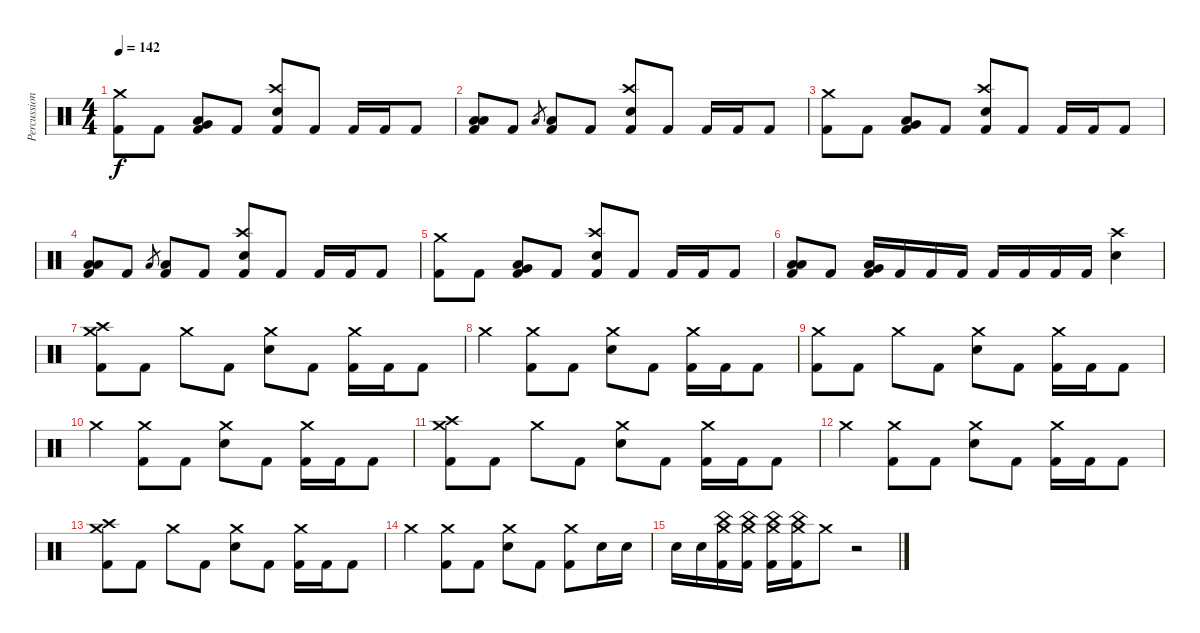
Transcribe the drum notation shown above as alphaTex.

\track ("Percussion" "Percussion") {instrument percussion}
\staff {score}
\articulation defaults
\ts (4 4)
\tempo 142
\clef neutral
\ks c
("Crash medium (hit)" "Kick (hit) 2").8{dy f} "Kick (hit) 2".8 ("Very Low Tom (hit)" "Low Floor Tom (hit)" "Kick (hit) 2").8 "Kick (hit) 2".8 ("Crash high (hit)" "Electric Snare (hit)" "Kick (hit) 2").8 "Kick (hit) 2".8 "Kick (hit) 2".16 "Kick (hit) 2".16 "Kick (hit) 2".8 |
("Low Tom (hit)" "Low Floor Tom (hit)" "Kick (hit) 2").8 "Kick (hit) 2".8 "Low Tom (hit)".8{gr} ("Low Tom (hit)" "Kick (hit) 2").8 "Kick (hit) 2".8 ("Crash high (hit)" "Electric Snare (hit)" "Kick (hit) 2").8 "Kick (hit) 2".8 "Kick (hit) 2".16 "Kick (hit) 2".16 "Kick (hit) 2".8 |
("Crash medium (hit)" "Kick (hit) 2").8 "Kick (hit) 2".8 ("Very Low Tom (hit)" "Low Floor Tom (hit)" "Kick (hit) 2").8 "Kick (hit) 2".8 ("Crash high (hit)" "Electric Snare (hit)" "Kick (hit) 2").8 "Kick (hit) 2".8 "Kick (hit) 2".16 "Kick (hit) 2".16 "Kick (hit) 2".8 |
("Low Tom (hit)" "Low Floor Tom (hit)" "Kick (hit) 2").8 "Kick (hit) 2".8 "Low Tom (hit)".8{gr} ("Low Tom (hit)" "Kick (hit) 2").8 "Kick (hit) 2".8 ("Crash high (hit)" "Electric Snare (hit)" "Kick (hit) 2").8 "Kick (hit) 2".8 "Kick (hit) 2".16 "Kick (hit) 2".16 "Kick (hit) 2".8 |
("Crash medium (hit)" "Kick (hit) 2").8 "Kick (hit) 2".8 ("Very Low Tom (hit)" "Low Floor Tom (hit)" "Kick (hit) 2").8 "Kick (hit) 2".8 ("Crash high (hit)" "Electric Snare (hit)" "Kick (hit) 2").8 "Kick (hit) 2".8 "Kick (hit) 2".16 "Kick (hit) 2".16 "Kick (hit) 2".8 |
("Low Tom (hit)" "Low Floor Tom (hit)" "Kick (hit) 2").8 "Kick (hit) 2".8 ("Very Low Tom (hit)" "Low Floor Tom (hit)" "Kick (hit) 2").16 "Kick (hit) 2".16 "Kick (hit) 2".16 "Kick (hit) 2".16 "Kick (hit) 2".16 "Kick (hit) 2".16 "Kick (hit) 2".16 "Kick (hit) 2".16 ("Crash high (hit)" "Electric Snare (hit)").4 |
("Crash medium (hit)" "Crash high (hit)" "Kick (hit) 2").8 "Kick (hit) 2".8 "Crash medium (hit)".8 "Kick (hit) 2".8 ("Crash medium (hit)" "Electric Snare (hit)").8 "Kick (hit) 2".8 ("Crash medium (hit)" "Kick (hit) 2").16 "Kick (hit) 2".16 "Kick (hit) 2".8 |
"Crash medium (hit)".4 ("Crash medium (hit)" "Kick (hit) 2").8 "Kick (hit) 2".8 ("Crash medium (hit)" "Electric Snare (hit)").8 "Kick (hit) 2".8 ("Crash medium (hit)" "Kick (hit) 2").16 "Kick (hit) 2".16 "Kick (hit) 2".8 |
("Crash medium (hit)" "Kick (hit) 2").8 "Kick (hit) 2".8 "Crash medium (hit)".8 "Kick (hit) 2".8 ("Crash medium (hit)" "Electric Snare (hit)").8 "Kick (hit) 2".8 ("Crash medium (hit)" "Kick (hit) 2").16 "Kick (hit) 2".16 "Kick (hit) 2".8 |
"Crash medium (hit)".4 ("Crash medium (hit)" "Kick (hit) 2").8 "Kick (hit) 2".8 ("Crash medium (hit)" "Electric Snare (hit)").8 "Kick (hit) 2".8 ("Crash medium (hit)" "Kick (hit) 2").16 "Kick (hit) 2".16 "Kick (hit) 2".8 |
("Crash medium (hit)" "Crash high (hit)" "Kick (hit) 2").8 "Kick (hit) 2".8 "Crash medium (hit)".8 "Kick (hit) 2".8 ("Crash medium (hit)" "Electric Snare (hit)").8 "Kick (hit) 2".8 ("Crash medium (hit)" "Kick (hit) 2").16 "Kick (hit) 2".16 "Kick (hit) 2".8 |
"Crash medium (hit)".4 ("Crash medium (hit)" "Kick (hit) 2").8 "Kick (hit) 2".8 ("Crash medium (hit)" "Electric Snare (hit)").8 "Kick (hit) 2".8 ("Crash medium (hit)" "Kick (hit) 2").16 "Kick (hit) 2".16 "Kick (hit) 2".8 |
("Crash medium (hit)" "Crash high (hit)" "Kick (hit) 2").8 "Kick (hit) 2".8 "Crash medium (hit)".8 "Kick (hit) 2".8 ("Crash medium (hit)" "Electric Snare (hit)").8 "Kick (hit) 2".8 ("Crash medium (hit)" "Kick (hit) 2").16 "Kick (hit) 2".16 "Kick (hit) 2".8 |
"Crash medium (hit)".4 ("Crash medium (hit)" "Kick (hit) 2").8 "Kick (hit) 2".8 ("Crash medium (hit)" "Electric Snare (hit)").8 "Kick (hit) 2".8 ("Crash medium (hit)" "Kick (hit) 2").8 "Electric Snare (hit)".16 "Electric Snare (hit)".16 |
"Electric Snare (hit)".16 "Electric Snare (hit)".16 ("Crash medium (hit)" "China (hit)" "Kick (hit) 2").16 ("Crash medium (hit)" "China (hit)" "Kick (hit) 2").16 ("Crash medium (hit)" "China (hit)" "Kick (hit) 2").16 ("Crash medium (hit)" "China (hit)" "Kick (hit) 2").16 "Crash medium (hit)".8{volume 0} r.2
